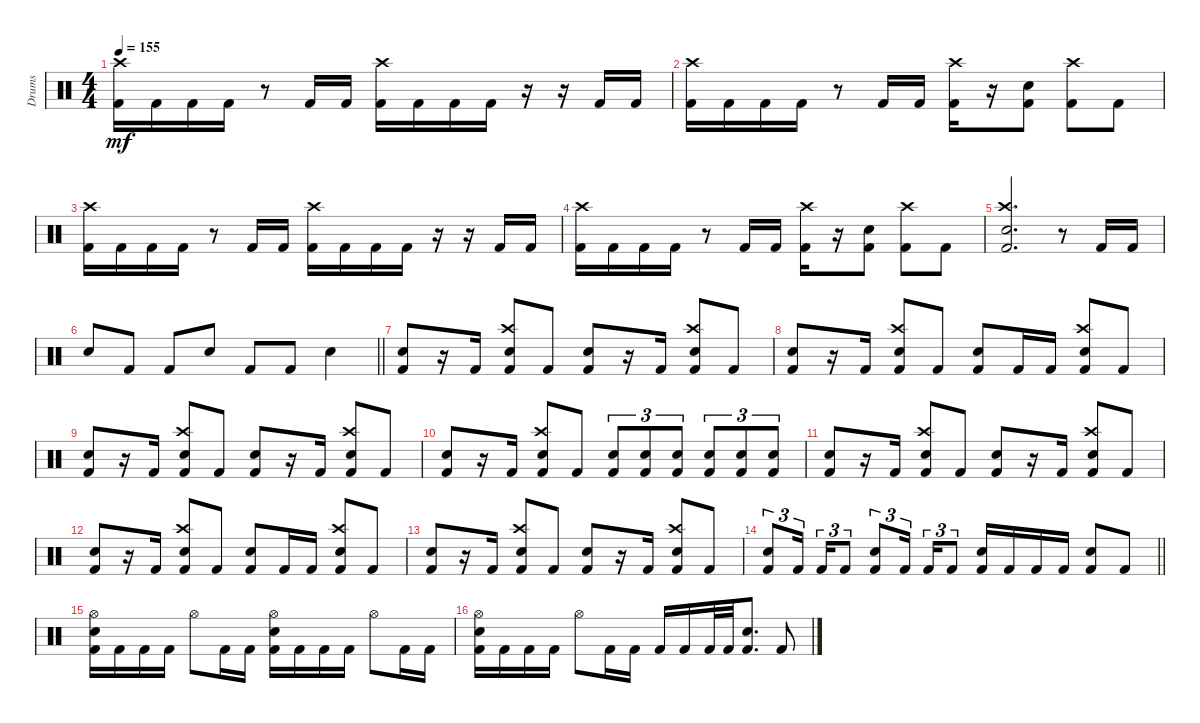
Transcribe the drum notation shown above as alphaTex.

\track ("Drums" "Drums") {instrument percussion}
\staff {score}
\articulation defaults
\ts (4 4)
\tempo 155
\clef neutral
\ks c
("Kick (hit) 2" "Crash high (hit)").16{dy mf} "Kick (hit) 2".16 "Kick (hit) 2".16 "Kick (hit) 2".16 r.8 "Kick (hit) 2".16 "Kick (hit) 2".16 ("Kick (hit) 2" "Crash high (hit)").16 "Kick (hit) 2".16 "Kick (hit) 2".16 "Kick (hit) 2".16 r.16 r.16 "Kick (hit) 2".16 "Kick (hit) 2".16 |
("Kick (hit) 2" "Crash high (hit)").16 "Kick (hit) 2".16 "Kick (hit) 2".16 "Kick (hit) 2".16 r.8 "Kick (hit) 2".16 "Kick (hit) 2".16 ("Kick (hit) 2" "Crash high (hit)").16 r.16 ("Kick (hit) 2" "Electric Snare (hit)").8 ("Kick (hit) 2" "Crash high (hit)").8 "Kick (hit) 2".8 |
("Kick (hit) 2" "Crash high (hit)").16 "Kick (hit) 2".16 "Kick (hit) 2".16 "Kick (hit) 2".16 r.8 "Kick (hit) 2".16 "Kick (hit) 2".16 ("Kick (hit) 2" "Crash high (hit)").16 "Kick (hit) 2".16 "Kick (hit) 2".16 "Kick (hit) 2".16 r.16 r.16 "Kick (hit) 2".16 "Kick (hit) 2".16 |
("Kick (hit) 2" "Crash high (hit)").16 "Kick (hit) 2".16 "Kick (hit) 2".16 "Kick (hit) 2".16 r.8 "Kick (hit) 2".16 "Kick (hit) 2".16 ("Kick (hit) 2" "Crash high (hit)").16 r.16 ("Kick (hit) 2" "Electric Snare (hit)").8 ("Kick (hit) 2" "Crash high (hit)").8 "Kick (hit) 2".8 |
("Kick (hit) 2" "Crash high (hit)" "Electric Snare (hit)").2{d} r.8 "Kick (hit) 2".16 "Kick (hit) 2".16 |
\barLineRight lightlight "Electric Snare (hit)".8 "Kick (hit) 2".8 "Kick (hit) 2".8 "Electric Snare (hit)".8 "Kick (hit) 2".8 "Kick (hit) 2".8 "Electric Snare (hit)".4
|
\section ("" "")
("Kick (hit) 2" "Electric Snare (hit)").8 r.16 "Kick (hit) 2".16 ("Kick (hit) 2" "Electric Snare (hit)" "Crash high (hit)").8 "Kick (hit) 2".8 ("Kick (hit) 2" "Electric Snare (hit)").8 r.16 "Kick (hit) 2".16 ("Kick (hit) 2" "Electric Snare (hit)" "Crash high (hit)").8 "Kick (hit) 2".8 |
("Kick (hit) 2" "Electric Snare (hit)").8 r.16 "Kick (hit) 2".16 ("Kick (hit) 2" "Electric Snare (hit)" "Crash high (hit)").8 "Kick (hit) 2".8 ("Kick (hit) 2" "Electric Snare (hit)").8 "Kick (hit) 2".16 "Kick (hit) 2".16 ("Kick (hit) 2" "Electric Snare (hit)" "Crash high (hit)").8 "Kick (hit) 2".8 |
("Kick (hit) 2" "Electric Snare (hit)").8 r.16 "Kick (hit) 2".16 ("Kick (hit) 2" "Electric Snare (hit)" "Crash high (hit)").8 "Kick (hit) 2".8 ("Kick (hit) 2" "Electric Snare (hit)").8 r.16 "Kick (hit) 2".16 ("Kick (hit) 2" "Electric Snare (hit)" "Crash high (hit)").8 "Kick (hit) 2".8 |
("Kick (hit) 2" "Electric Snare (hit)").8 r.16 "Kick (hit) 2".16 ("Kick (hit) 2" "Electric Snare (hit)" "Crash high (hit)").8 "Kick (hit) 2".8 ("Kick (hit) 2" "Electric Snare (hit)").8{tu (3 2)} ("Kick (hit) 2" "Electric Snare (hit)").8{tu (3 2)} ("Kick (hit) 2" "Electric Snare (hit)").8{tu (3 2)} ("Kick (hit) 2" "Snare (hit) 2").8{tu (3 2)} ("Kick (hit) 2" "Snare (hit) 2").8{tu (3 2)} ("Kick (hit) 2" "Snare (hit) 2").8{tu (3 2)} |
("Kick (hit) 2" "Electric Snare (hit)").8 r.16 "Kick (hit) 2".16 ("Kick (hit) 2" "Electric Snare (hit)" "Crash high (hit)").8 "Kick (hit) 2".8 ("Kick (hit) 2" "Electric Snare (hit)").8 r.16 "Kick (hit) 2".16 ("Kick (hit) 2" "Electric Snare (hit)" "Crash high (hit)").8 "Kick (hit) 2".8 |
("Kick (hit) 2" "Electric Snare (hit)").8 r.16 "Kick (hit) 2".16 ("Kick (hit) 2" "Electric Snare (hit)" "Crash high (hit)").8 "Kick (hit) 2".8 ("Kick (hit) 2" "Electric Snare (hit)").8 "Kick (hit) 2".16 "Kick (hit) 2".16 ("Kick (hit) 2" "Electric Snare (hit)" "Crash high (hit)").8 "Kick (hit) 2".8 |
("Kick (hit) 2" "Electric Snare (hit)").8 r.16 "Kick (hit) 2".16 ("Kick (hit) 2" "Electric Snare (hit)" "Crash high (hit)").8 "Kick (hit) 2".8 ("Kick (hit) 2" "Electric Snare (hit)").8 r.16 "Kick (hit) 2".16 ("Kick (hit) 2" "Electric Snare (hit)" "Crash high (hit)").8 "Kick (hit) 2".8 |
\barLineRight lightlight
("Kick (hit) 2" "Electric Snare (hit)").8{tu (3 2)} "Kick (hit) 2".16{tu (3 2) beam splitsecondary} "Kick (hit) 2".16{tu (3 2)} "Kick (hit) 2".8{tu (3 2)} ("Kick (hit) 2" "Electric Snare (hit)").8{tu (3 2)} "Kick (hit) 2".16{tu (3 2) beam splitsecondary} "Kick (hit) 2".16{tu (3 2)} "Kick (hit) 2".8{tu (3 2)} ("Kick (hit) 2" "Electric Snare (hit)").16 "Kick (hit) 2".16 "Kick (hit) 2".16 "Kick (hit) 2".16 ("Kick (hit) 2" "Electric Snare (hit)").8 "Kick (hit) 2".8 |
\section ("" "")
("Kick (hit) 2" "Electric Snare (hit)" "Hi-Hat (open)").16 "Kick (hit) 2".16 "Kick (hit) 2".16 "Kick (hit) 2".16 "Hi-Hat (open)".8 "Kick (hit) 2".16 "Kick (hit) 2".16 ("Kick (hit) 2" "Electric Snare (hit)" "Hi-Hat (open)").16 "Kick (hit) 2".16 "Kick (hit) 2".16 "Kick (hit) 2".16 "Hi-Hat (open)".8 "Kick (hit) 2".16 "Kick (hit) 2".16 |
("Kick (hit) 2" "Electric Snare (hit)" "Hi-Hat (open)").16 "Kick (hit) 2".16 "Kick (hit) 2".16 "Kick (hit) 2".16 "Hi-Hat (open)".8 "Kick (hit) 2".16 "Kick (hit) 2".16 "Kick (hit) 2".16 "Kick (hit) 2".16 "Kick (hit) 2".32 "Kick (hit) 2".32 ("Kick (hit) 2" "Electric Snare (hit)").8{d} "Kick (hit) 2".8
